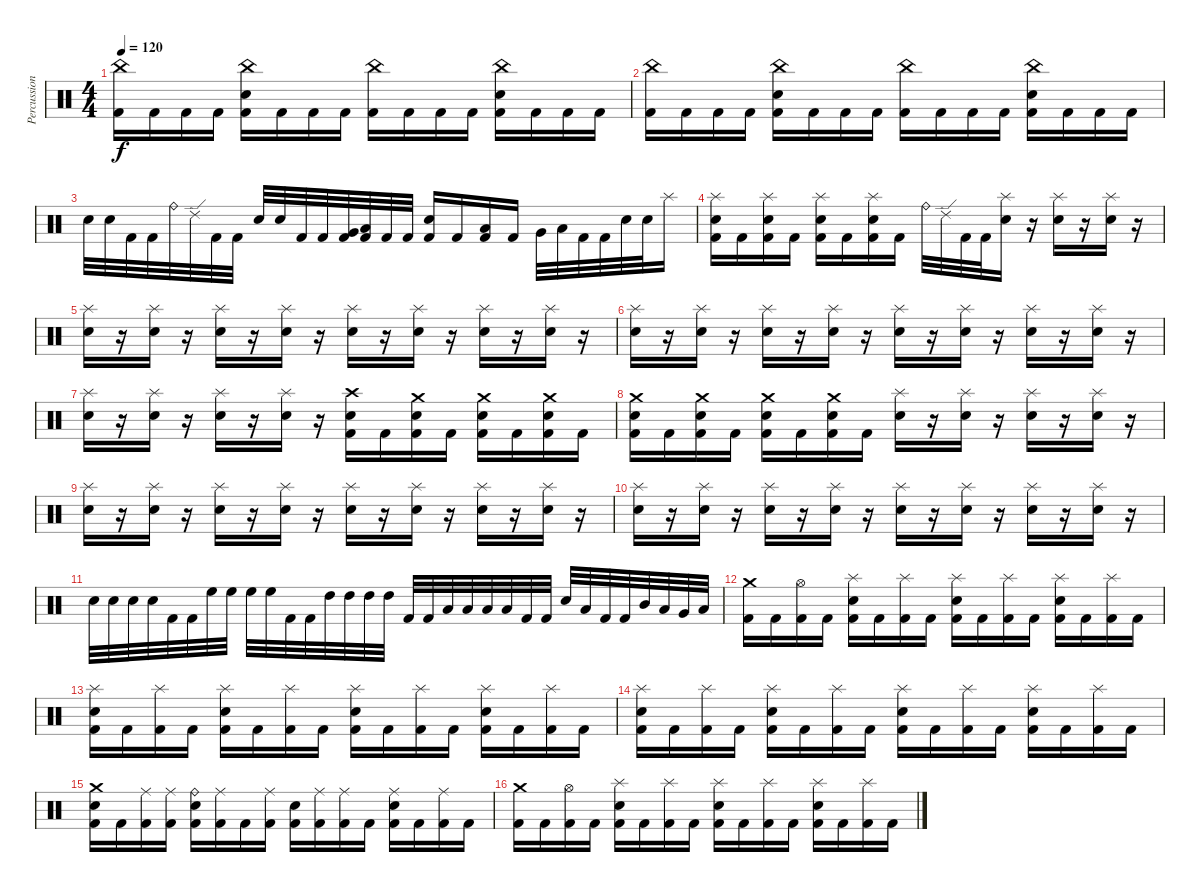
\track ("Percussion" "Percussion") {instrument percussion}
\staff {score}
\articulation defaults
\ts (4 4)
\tempo 120
\clef neutral
\ks c
("China (hit)" "Kick (hit) 2").16{dy f} "Kick (hit) 2".16 "Kick (hit) 2".16 "Kick (hit) 2".16 ("China (hit)" "Electric Snare (hit)" "Kick (hit) 2").16 "Kick (hit) 2".16 "Kick (hit) 2".16 "Kick (hit) 2".16 ("China (hit)" "Kick (hit) 2").16 "Kick (hit) 2".16 "Kick (hit) 2".16 "Kick (hit) 2".16 ("China (hit)" "Electric Snare (hit)" "Kick (hit) 2").16 "Kick (hit) 2".16 "Kick (hit) 2".16 "Kick (hit) 2".16 |
("China (hit)" "Kick (hit) 2").16 "Kick (hit) 2".16 "Kick (hit) 2".16 "Kick (hit) 2".16 ("China (hit)" "Electric Snare (hit)" "Kick (hit) 2").16 "Kick (hit) 2".16 "Kick (hit) 2".16 "Kick (hit) 2".16 ("China (hit)" "Kick (hit) 2").16 "Kick (hit) 2".16 "Kick (hit) 2".16 "Kick (hit) 2".16 ("China (hit)" "Electric Snare (hit)" "Kick (hit) 2").16 "Kick (hit) 2".16 "Kick (hit) 2".16 "Kick (hit) 2".16 |
"Electric Snare (hit)".32 "Electric Snare (hit)".32 "Kick (hit) 2".32 "Kick (hit) 2".32 "Ride (bell)".32 "Ride (edge) 2".32 "Kick (hit) 2".32 "Kick (hit) 2".32 "Electric Snare (hit)".32 "Electric Snare (hit)".32 "Kick (hit) 2".32 "Kick (hit) 2".32 ("Very Low Tom (hit)" "Kick (hit) 2").32 ("Low Floor Tom (hit)" "Kick (hit) 2").32 "Kick (hit) 2".32 "Kick (hit) 2".32 ("Electric Snare (hit)" "Kick (hit) 2").16 "Kick (hit) 2".16 ("Low Floor Tom (hit)" "Kick (hit) 2").16 "Kick (hit) 2".16 "Very Low Tom (hit)".32 "Low Floor Tom (hit)".32 "Kick (hit) 2".32 "Kick (hit) 2".32 "Electric Snare (hit)".32 "Electric Snare (hit)".32 "Splash (hit)".16 |
("Splash (hit)" "Electric Snare (hit)" "Kick (hit) 2").16 "Kick (hit) 2".16 ("Splash (hit)" "Electric Snare (hit)" "Kick (hit) 2").16 "Kick (hit) 2".16 ("Splash (hit)" "Electric Snare (hit)" "Kick (hit) 2").16 "Kick (hit) 2".16 ("Splash (hit)" "Electric Snare (hit)" "Kick (hit) 2").16 "Kick (hit) 2".16 "Ride (bell)".32 "Ride (edge) 2".32 "Kick (hit) 2".32 "Kick (hit) 2".32 ("Splash (hit)" "Electric Snare (hit)").16 r.16 ("Splash (hit)" "Electric Snare (hit)").16 r.16 ("Splash (hit)" "Electric Snare (hit)").16 r.16 |
("Splash (hit)" "Electric Snare (hit)").16 r.16 ("Splash (hit)" "Electric Snare (hit)").16 r.16 ("Splash (hit)" "Electric Snare (hit)").16 r.16 ("Splash (hit)" "Electric Snare (hit)").16 r.16 ("Splash (hit)" "Electric Snare (hit)").16 r.16 ("Splash (hit)" "Electric Snare (hit)").16 r.16 ("Splash (hit)" "Electric Snare (hit)").16 r.16 ("Splash (hit)" "Electric Snare (hit)").16 r.16 |
("Splash (hit)" "Electric Snare (hit)").16 r.16 ("Splash (hit)" "Electric Snare (hit)").16 r.16 ("Splash (hit)" "Electric Snare (hit)").16 r.16 ("Splash (hit)" "Electric Snare (hit)").16 r.16 ("Splash (hit)" "Electric Snare (hit)").16 r.16 ("Splash (hit)" "Electric Snare (hit)").16 r.16 ("Splash (hit)" "Electric Snare (hit)").16 r.16 ("Splash (hit)" "Electric Snare (hit)").16 r.16 |
("Splash (hit)" "Electric Snare (hit)").16 r.16 ("Splash (hit)" "Electric Snare (hit)").16 r.16 ("Splash (hit)" "Electric Snare (hit)").16 r.16 ("Splash (hit)" "Electric Snare (hit)").16 r.16 ("Crash high (hit)" "Electric Snare (hit)" "Kick (hit) 2").16 "Kick (hit) 2".16 ("Crash medium (hit)" "Electric Snare (hit)" "Kick (hit) 2").16 "Kick (hit) 2".16 ("Crash medium (hit)" "Electric Snare (hit)" "Kick (hit) 2").16 "Kick (hit) 2".16 ("Crash medium (hit)" "Electric Snare (hit)" "Kick (hit) 2").16 "Kick (hit) 2".16 |
("Crash medium (hit)" "Electric Snare (hit)" "Kick (hit) 2").16 "Kick (hit) 2".16 ("Crash medium (hit)" "Electric Snare (hit)" "Kick (hit) 2").16 "Kick (hit) 2".16 ("Crash medium (hit)" "Electric Snare (hit)" "Kick (hit) 2").16 "Kick (hit) 2".16 ("Crash medium (hit)" "Electric Snare (hit)" "Kick (hit) 2").16 "Kick (hit) 2".16 ("Splash (hit)" "Electric Snare (hit)").16 r.16 ("Splash (hit)" "Electric Snare (hit)").16 r.16 ("Splash (hit)" "Electric Snare (hit)").16 r.16 ("Splash (hit)" "Electric Snare (hit)").16 r.16 |
("Splash (hit)" "Electric Snare (hit)").16 r.16 ("Splash (hit)" "Electric Snare (hit)").16 r.16 ("Splash (hit)" "Electric Snare (hit)").16 r.16 ("Splash (hit)" "Electric Snare (hit)").16 r.16 ("Splash (hit)" "Electric Snare (hit)").16 r.16 ("Splash (hit)" "Electric Snare (hit)").16 r.16 ("Splash (hit)" "Electric Snare (hit)").16 r.16 ("Splash (hit)" "Electric Snare (hit)").16 r.16 |
("Splash (hit)" "Electric Snare (hit)").16 r.16 ("Splash (hit)" "Electric Snare (hit)").16 r.16 ("Splash (hit)" "Electric Snare (hit)").16 r.16 ("Splash (hit)" "Electric Snare (hit)").16 r.16 ("Splash (hit)" "Electric Snare (hit)").16 r.16 ("Splash (hit)" "Electric Snare (hit)").16 r.16 ("Splash (hit)" "Electric Snare (hit)").16 r.16 ("Splash (hit)" "Electric Snare (hit)").16 r.16 |
"Electric Snare (hit)".32 "Electric Snare (hit)".32 "Electric Snare (hit)".32 "Electric Snare (hit)".32 "Kick (hit) 2".32 "Kick (hit) 2".32 "High Floor Tom (hit)".32 "High Floor Tom (hit)".32 "High Floor Tom (hit)".32 "High Floor Tom (hit)".32 "Kick (hit) 2".32 "Kick (hit) 2".32 "High Tom (hit)".32 "High Tom (hit)".32 "High Tom (hit)".32 "High Tom (hit)".32 "Kick (hit) 2".32 "Kick (hit) 2".32 "Low Tom (hit)".32 "Low Tom (hit)".32 "Low Tom (hit)".32 "Low Tom (hit)".32 "Kick (hit) 2".32 "Kick (hit) 2".32 "Electric Snare (hit)".32 "Low Floor Tom (hit)".32 "Kick (hit) 2".32 "Kick (hit) 2".32 "Mid Tom (hit)".32 "Low Tom (hit)".32 "Very Low Tom (hit)".32 "Low Floor Tom (hit)".32 |
("Crash medium (hit)" "Kick (hit) 2").16 "Kick (hit) 2".16 ("Hi-Hat (open)" "Kick (hit) 2").16 "Kick (hit) 2".16 ("Splash (hit)" "Electric Snare (hit)" "Kick (hit) 2").16 "Kick (hit) 2".16 ("Splash (hit)" "Kick (hit) 2").16 "Kick (hit) 2".16 ("Splash (hit)" "Electric Snare (hit)" "Kick (hit) 2").16 "Kick (hit) 2".16 ("Splash (hit)" "Kick (hit) 2").16 "Kick (hit) 2".16 ("Splash (hit)" "Electric Snare (hit)" "Kick (hit) 2").16 "Kick (hit) 2".16 ("Splash (hit)" "Kick (hit) 2").16 "Kick (hit) 2".16 |
("Splash (hit)" "Electric Snare (hit)" "Kick (hit) 2").16 "Kick (hit) 2".16 ("Splash (hit)" "Kick (hit) 2").16 "Kick (hit) 2".16 ("Splash (hit)" "Electric Snare (hit)" "Kick (hit) 2").16 "Kick (hit) 2".16 ("Splash (hit)" "Kick (hit) 2").16 "Kick (hit) 2".16 ("Splash (hit)" "Electric Snare (hit)" "Kick (hit) 2").16 "Kick (hit) 2".16 ("Splash (hit)" "Kick (hit) 2").16 "Kick (hit) 2".16 ("Splash (hit)" "Electric Snare (hit)" "Kick (hit) 2").16 "Kick (hit) 2".16 ("Splash (hit)" "Kick (hit) 2").16 "Kick (hit) 2".16 |
("Splash (hit)" "Electric Snare (hit)" "Kick (hit) 2").16 "Kick (hit) 2".16 ("Splash (hit)" "Kick (hit) 2").16 "Kick (hit) 2".16 ("Splash (hit)" "Electric Snare (hit)" "Kick (hit) 2").16 "Kick (hit) 2".16 ("Splash (hit)" "Kick (hit) 2").16 "Kick (hit) 2".16 ("Splash (hit)" "Electric Snare (hit)" "Kick (hit) 2").16 "Kick (hit) 2".16 ("Splash (hit)" "Kick (hit) 2").16 "Kick (hit) 2".16 ("Splash (hit)" "Electric Snare (hit)" "Kick (hit) 2").16 "Kick (hit) 2".16 ("Splash (hit)" "Kick (hit) 2").16 "Kick (hit) 2".16 |
("Crash medium (hit)" "Electric Snare (hit)" "Kick (hit) 2").16 "Kick (hit) 2".16 ("Ride (middle)" "Kick (hit) 2").16 ("Ride (middle)" "Kick (hit) 2").16 ("Ride (bell)" "Electric Snare (hit)" "Kick (hit) 2").16 ("Ride (middle)" "Kick (hit) 2").16 "Kick (hit) 2".16 ("Ride (middle)" "Kick (hit) 2").16 ("Electric Snare (hit)" "Kick (hit) 2").16 ("Ride (middle)" "Kick (hit) 2").16 ("Ride (middle)" "Kick (hit) 2").16 "Kick (hit) 2".16 ("Ride (middle)" "Electric Snare (hit)" "Kick (hit) 2").16 "Kick (hit) 2".16 ("Ride (middle)" "Kick (hit) 2").16 "Kick (hit) 2".16 |
("Crash medium (hit)" "Kick (hit) 2").16 "Kick (hit) 2".16 ("Hi-Hat (open)" "Kick (hit) 2").16 "Kick (hit) 2".16 ("Splash (hit)" "Electric Snare (hit)" "Kick (hit) 2").16 "Kick (hit) 2".16 ("Splash (hit)" "Kick (hit) 2").16 "Kick (hit) 2".16 ("Splash (hit)" "Electric Snare (hit)" "Kick (hit) 2").16 "Kick (hit) 2".16 ("Splash (hit)" "Kick (hit) 2").16 "Kick (hit) 2".16 ("Splash (hit)" "Electric Snare (hit)" "Kick (hit) 2").16 "Kick (hit) 2".16 ("Splash (hit)" "Kick (hit) 2").16 "Kick (hit) 2".16
